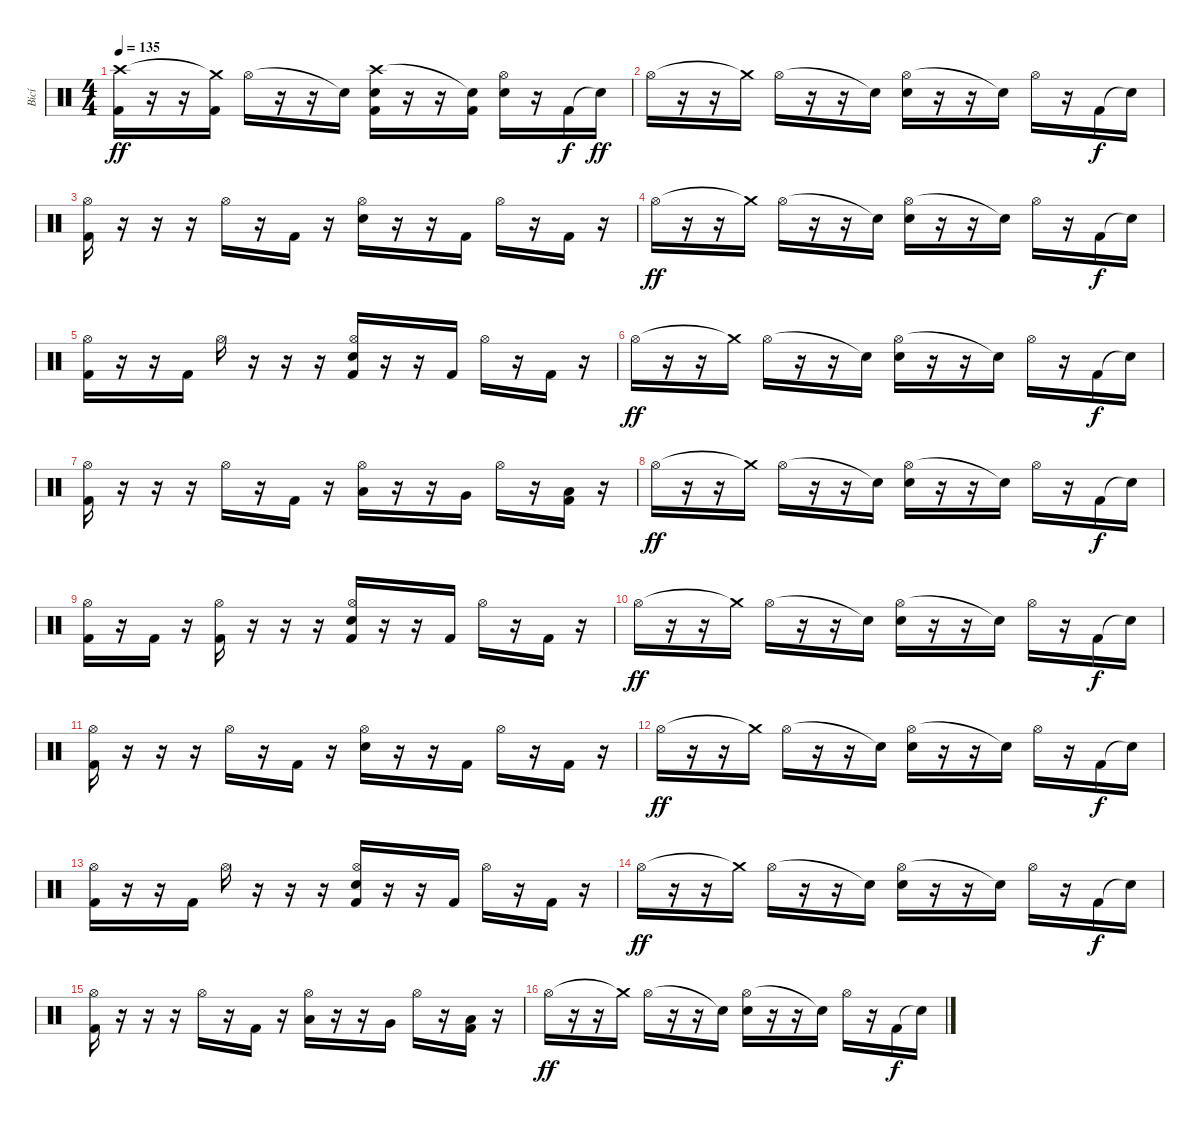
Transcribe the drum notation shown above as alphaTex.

\track ("Bicí" "Bicí") {instrument percussion}
\staff {score}
\articulation defaults
\ts (4 4)
\tempo 135
\clef neutral
\ks c
("Crash high (hit)" "Kick (hit) 2").16{dy ff} r.16 r.16 ("Crash medium (hit)"{t} "Kick (hit) 2").16 "Hi-Hat (open)".16 r.16 r.16 "Snare (hit)"{t}.16 ("Crash high (hit)" "Electric Snare (hit)" "Kick (hit) 2").16 r.16 r.16 ("Snare (hit)"{t} "Kick (hit) 2").16 ("Hi-Hat (open)" "Electric Snare (hit)").16 r.16 "Kick (hit) 2".16{dy f} "Snare (hit)"{t}.16{dy ff} |
"Hi-Hat (open)".16 r.16 r.16 "Crash medium (hit)"{t}.16 "Hi-Hat (open)".16 r.16 r.16 "Snare (hit)"{t}.16 ("Hi-Hat (open)" "Electric Snare (hit)").16 r.16 r.16 "Snare (hit)"{t}.16 "Hi-Hat (open)".16 r.16 "Kick (hit) 2".16{dy f} "Snare (hit)"{t}.16 |
("Hi-Hat (open)" "Kick (hit) 2").16 r.16 r.16 r.16 "Hi-Hat (open)".16 r.16 "Kick (hit) 2".16 r.16 ("Hi-Hat (open)" "Electric Snare (hit)").16 r.16 r.16 "Kick (hit) 2".16 "Hi-Hat (open)".16 r.16 "Kick (hit) 2".16 r.16 |
"Hi-Hat (open)".16{dy ff} r.16 r.16 "Crash medium (hit)"{t}.16 "Hi-Hat (open)".16 r.16 r.16 "Snare (hit)"{t}.16 ("Hi-Hat (open)" "Electric Snare (hit)").16 r.16 r.16 "Snare (hit)"{t}.16 "Hi-Hat (open)".16 r.16 "Kick (hit) 2".16{dy f} "Snare (hit)"{t}.16 |
("Hi-Hat (open)" "Kick (hit) 2").16 r.16 r.16 "Kick (hit) 2".16 "Hi-Hat (open)".16 r.16 r.16 r.16 ("Hi-Hat (open)" "Electric Snare (hit)" "Kick (hit) 2").16 r.16 r.16 "Kick (hit) 2".16 "Hi-Hat (open)".16 r.16 "Kick (hit) 2".16 r.16 |
"Hi-Hat (open)".16{dy ff} r.16 r.16 "Crash medium (hit)"{t}.16 "Hi-Hat (open)".16 r.16 r.16 "Snare (hit)"{t}.16 ("Hi-Hat (open)" "Electric Snare (hit)").16 r.16 r.16 "Snare (hit)"{t}.16 "Hi-Hat (open)".16 r.16 "Kick (hit) 2".16{dy f} "Snare (hit)"{t}.16 |
("Hi-Hat (open)" "Kick (hit) 2").16 r.16 r.16 r.16 "Hi-Hat (open)".16 r.16 "Kick (hit) 2".16 r.16 ("Hi-Hat (open)" "Low Tom (hit)").16 r.16 r.16 "Very Low Tom (hit)".16 "Hi-Hat (open)".16 r.16 ("Low Floor Tom (hit)" "Kick (hit) 2").16 r.16 |
"Hi-Hat (open)".16{dy ff} r.16 r.16 "Crash medium (hit)"{t}.16 "Hi-Hat (open)".16 r.16 r.16 "Snare (hit)"{t}.16 ("Hi-Hat (open)" "Electric Snare (hit)").16 r.16 r.16 "Snare (hit)"{t}.16 "Hi-Hat (open)".16 r.16 "Kick (hit) 2".16{dy f} "Snare (hit)"{t}.16 |
("Hi-Hat (open)" "Kick (hit) 2").16 r.16 "Kick (hit) 2".16 r.16 ("Hi-Hat (open)" "Kick (hit) 2").16 r.16 r.16 r.16 ("Hi-Hat (open)" "Electric Snare (hit)" "Kick (hit) 2").16 r.16 r.16 "Kick (hit) 2".16 "Hi-Hat (open)".16 r.16 "Kick (hit) 2".16 r.16 |
"Hi-Hat (open)".16{dy ff} r.16 r.16 "Crash medium (hit)"{t}.16 "Hi-Hat (open)".16 r.16 r.16 "Snare (hit)"{t}.16 ("Hi-Hat (open)" "Electric Snare (hit)").16 r.16 r.16 "Snare (hit)"{t}.16 "Hi-Hat (open)".16 r.16 "Kick (hit) 2".16{dy f} "Snare (hit)"{t}.16 |
("Hi-Hat (open)" "Kick (hit) 2").16 r.16 r.16 r.16 "Hi-Hat (open)".16 r.16 "Kick (hit) 2".16 r.16 ("Hi-Hat (open)" "Electric Snare (hit)").16 r.16 r.16 "Kick (hit) 2".16 "Hi-Hat (open)".16 r.16 "Kick (hit) 2".16 r.16 |
"Hi-Hat (open)".16{dy ff} r.16 r.16 "Crash medium (hit)"{t}.16 "Hi-Hat (open)".16 r.16 r.16 "Snare (hit)"{t}.16 ("Hi-Hat (open)" "Electric Snare (hit)").16 r.16 r.16 "Snare (hit)"{t}.16 "Hi-Hat (open)".16 r.16 "Kick (hit) 2".16{dy f} "Snare (hit)"{t}.16 |
("Hi-Hat (open)" "Kick (hit) 2").16 r.16 r.16 "Kick (hit) 2".16 "Hi-Hat (open)".16 r.16 r.16 r.16 ("Hi-Hat (open)" "Electric Snare (hit)" "Kick (hit) 2").16 r.16 r.16 "Kick (hit) 2".16 "Hi-Hat (open)".16 r.16 "Kick (hit) 2".16 r.16 |
"Hi-Hat (open)".16{dy ff} r.16 r.16 "Crash medium (hit)"{t}.16 "Hi-Hat (open)".16 r.16 r.16 "Snare (hit)"{t}.16 ("Hi-Hat (open)" "Electric Snare (hit)").16 r.16 r.16 "Snare (hit)"{t}.16 "Hi-Hat (open)".16 r.16 "Kick (hit) 2".16{dy f} "Snare (hit)"{t}.16 |
("Hi-Hat (open)" "Kick (hit) 2").16 r.16 r.16 r.16 "Hi-Hat (open)".16 r.16 "Kick (hit) 2".16 r.16 ("Hi-Hat (open)" "Low Tom (hit)").16 r.16 r.16 "Very Low Tom (hit)".16 "Hi-Hat (open)".16 r.16 ("Low Floor Tom (hit)" "Kick (hit) 2").16 r.16 |
"Hi-Hat (open)".16{dy ff} r.16 r.16 "Crash medium (hit)"{t}.16 "Hi-Hat (open)".16 r.16 r.16 "Snare (hit)"{t}.16 ("Hi-Hat (open)" "Electric Snare (hit)").16 r.16 r.16 "Snare (hit)"{t}.16 "Hi-Hat (open)".16 r.16 "Kick (hit) 2".16{dy f} "Snare (hit)"{t}.16
